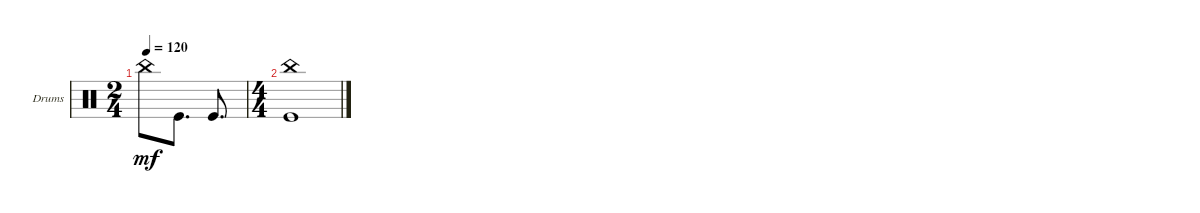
\defaultSystemsLayout 4
\bracketExtendMode groupsimilarinstruments
\firstSystemTrackNameOrientation horizontal
\otherSystemsTrackNameOrientation horizontal
\track ("Drumkit" "Drums") {instrument percussion}
\staff {score}
\articulation defaults
\ts (2 4)
\tempo 120
\clef neutral
\ks c "China (hit)".8{dy mf} "Kick (hit)".8{d} "Kick (hit)".8{d}
|
\ts (4 4)
("Kick (hit)" "China (hit)").1
